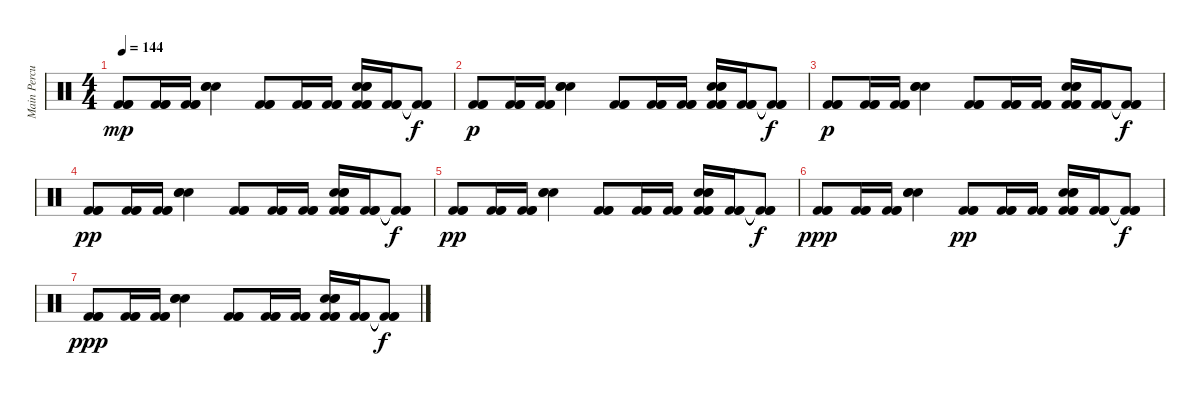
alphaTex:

\track ("Main Percussion" "Main Percu") {instrument percussion}
\staff {score}
\articulation defaults
\ts (4 4)
\tempo 144
\clef neutral
\ks c
("Kick (hit) 2" "Kick (hit) 2" "Kick (hit) 2").8{dy mp} ("Kick (hit) 2" "Kick (hit) 2" "Kick (hit) 2").16 ("Kick (hit) 2" "Kick (hit) 2" "Kick (hit) 2").16 ("Electric Snare (hit)" "Electric Snare (hit)" "Electric Snare (hit)").4 ("Kick (hit) 2" "Kick (hit) 2" "Kick (hit) 2").8 ("Kick (hit) 2" "Kick (hit) 2" "Kick (hit) 2").16 ("Kick (hit) 2" "Kick (hit) 2" "Kick (hit) 2").16 ("Snare (hit) 2" "Snare (hit) 2" "Snare (hit) 2" "Kick (hit) 2" "Kick (hit) 2" "Kick (hit) 2").16 ("Kick (hit) 2" "Kick (hit) 2" "Kick (hit) 2").16 ("Kick (hit) 2"{t} "Kick (hit) 2"{t} "Kick (hit) 2"{t}).8{dy f} |
("Kick (hit) 2" "Kick (hit) 2" "Kick (hit) 2").8{dy p} ("Kick (hit) 2" "Kick (hit) 2" "Kick (hit) 2").16 ("Kick (hit) 2" "Kick (hit) 2" "Kick (hit) 2").16 ("Electric Snare (hit)" "Electric Snare (hit)" "Electric Snare (hit)").4 ("Kick (hit) 2" "Kick (hit) 2" "Kick (hit) 2").8 ("Kick (hit) 2" "Kick (hit) 2" "Kick (hit) 2").16 ("Kick (hit) 2" "Kick (hit) 2" "Kick (hit) 2").16 ("Snare (hit) 2" "Snare (hit) 2" "Snare (hit) 2" "Kick (hit) 2" "Kick (hit) 2" "Kick (hit) 2").16 ("Kick (hit) 2" "Kick (hit) 2" "Kick (hit) 2").16 ("Kick (hit) 2"{t} "Kick (hit) 2"{t} "Kick (hit) 2"{t}).8{dy f} |
("Kick (hit) 2" "Kick (hit) 2" "Kick (hit) 2").8{dy p} ("Kick (hit) 2" "Kick (hit) 2" "Kick (hit) 2").16 ("Kick (hit) 2" "Kick (hit) 2" "Kick (hit) 2").16 ("Electric Snare (hit)" "Electric Snare (hit)" "Electric Snare (hit)").4 ("Kick (hit) 2" "Kick (hit) 2" "Kick (hit) 2").8 ("Kick (hit) 2" "Kick (hit) 2" "Kick (hit) 2").16 ("Kick (hit) 2" "Kick (hit) 2" "Kick (hit) 2").16 ("Snare (hit) 2" "Snare (hit) 2" "Snare (hit) 2" "Kick (hit) 2" "Kick (hit) 2" "Kick (hit) 2").16 ("Kick (hit) 2" "Kick (hit) 2" "Kick (hit) 2").16 ("Kick (hit) 2"{t} "Kick (hit) 2"{t} "Kick (hit) 2"{t}).8{dy f} |
("Kick (hit) 2" "Kick (hit) 2" "Kick (hit) 2").8{dy pp} ("Kick (hit) 2" "Kick (hit) 2" "Kick (hit) 2").16 ("Kick (hit) 2" "Kick (hit) 2" "Kick (hit) 2").16 ("Electric Snare (hit)" "Electric Snare (hit)" "Electric Snare (hit)").4 ("Kick (hit) 2" "Kick (hit) 2" "Kick (hit) 2").8 ("Kick (hit) 2" "Kick (hit) 2" "Kick (hit) 2").16 ("Kick (hit) 2" "Kick (hit) 2" "Kick (hit) 2").16 ("Snare (hit) 2" "Snare (hit) 2" "Snare (hit) 2" "Kick (hit) 2" "Kick (hit) 2" "Kick (hit) 2").16 ("Kick (hit) 2" "Kick (hit) 2" "Kick (hit) 2").16 ("Kick (hit) 2"{t} "Kick (hit) 2"{t} "Kick (hit) 2"{t}).8{dy f} |
("Kick (hit) 2" "Kick (hit) 2" "Kick (hit) 2").8{dy pp} ("Kick (hit) 2" "Kick (hit) 2" "Kick (hit) 2").16 ("Kick (hit) 2" "Kick (hit) 2" "Kick (hit) 2").16 ("Electric Snare (hit)" "Electric Snare (hit)" "Electric Snare (hit)").4 ("Kick (hit) 2" "Kick (hit) 2" "Kick (hit) 2").8 ("Kick (hit) 2" "Kick (hit) 2" "Kick (hit) 2").16 ("Kick (hit) 2" "Kick (hit) 2" "Kick (hit) 2").16 ("Snare (hit) 2" "Snare (hit) 2" "Snare (hit) 2" "Kick (hit) 2" "Kick (hit) 2" "Kick (hit) 2").16 ("Kick (hit) 2" "Kick (hit) 2" "Kick (hit) 2").16 ("Kick (hit) 2"{t} "Kick (hit) 2"{t} "Kick (hit) 2"{t}).8{dy f} |
("Kick (hit) 2" "Kick (hit) 2" "Kick (hit) 2").8{dy ppp} ("Kick (hit) 2" "Kick (hit) 2" "Kick (hit) 2").16 ("Kick (hit) 2" "Kick (hit) 2" "Kick (hit) 2").16 ("Electric Snare (hit)" "Electric Snare (hit)" "Electric Snare (hit)").4 ("Kick (hit) 2" "Kick (hit) 2" "Kick (hit) 2").8{dy pp} ("Kick (hit) 2" "Kick (hit) 2" "Kick (hit) 2").16 ("Kick (hit) 2" "Kick (hit) 2" "Kick (hit) 2").16 ("Snare (hit) 2" "Snare (hit) 2" "Snare (hit) 2" "Kick (hit) 2" "Kick (hit) 2" "Kick (hit) 2").16 ("Kick (hit) 2" "Kick (hit) 2" "Kick (hit) 2").16 ("Kick (hit) 2"{t} "Kick (hit) 2"{t} "Kick (hit) 2"{t}).8{dy f} |
("Kick (hit) 2" "Kick (hit) 2" "Kick (hit) 2").8{dy ppp} ("Kick (hit) 2" "Kick (hit) 2" "Kick (hit) 2").16 ("Kick (hit) 2" "Kick (hit) 2" "Kick (hit) 2").16 ("Electric Snare (hit)" "Electric Snare (hit)" "Electric Snare (hit)").4 ("Kick (hit) 2" "Kick (hit) 2" "Kick (hit) 2").8 ("Kick (hit) 2" "Kick (hit) 2" "Kick (hit) 2").16 ("Kick (hit) 2" "Kick (hit) 2" "Kick (hit) 2").16 ("Snare (hit) 2" "Snare (hit) 2" "Snare (hit) 2" "Kick (hit) 2" "Kick (hit) 2" "Kick (hit) 2").16 ("Kick (hit) 2" "Kick (hit) 2" "Kick (hit) 2").16 ("Kick (hit) 2"{t} "Kick (hit) 2"{t} "Kick (hit) 2"{t}).8{dy f}
